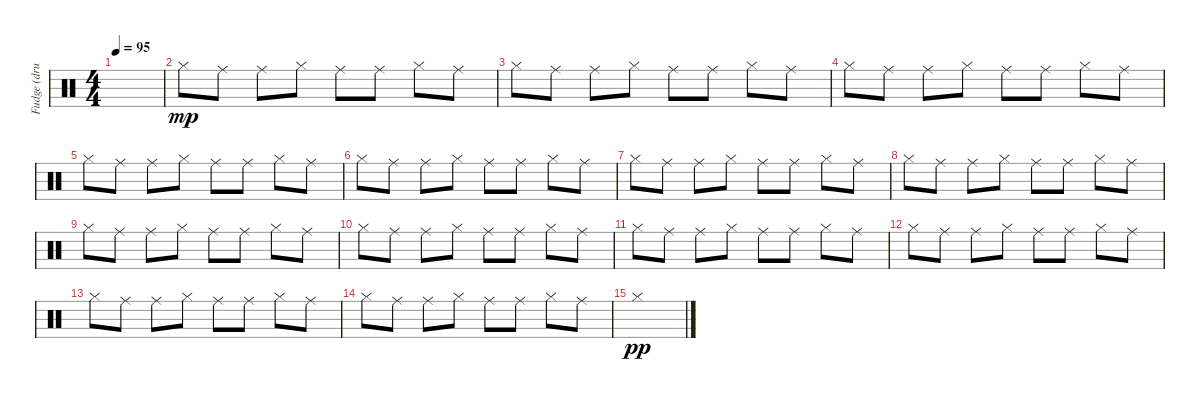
\track ("Fudge (drums)" "Fudge (dru") {instrument percussion}
\staff {score}
\articulation defaults
\ts (4 4)
\tempo 95
\clef neutral
\ks c
|
"Hi-Hat (closed)".8{dy mp volume 7} "Ride (middle)".8 "Ride (middle)".8 "Hi-Hat (closed)".8 "Ride (middle)".8 "Ride (middle)".8 "Hi-Hat (closed)".8 "Ride (middle)".8 |
"Hi-Hat (closed)".8 "Ride (middle)".8 "Ride (middle)".8 "Hi-Hat (closed)".8 "Ride (middle)".8 "Ride (middle)".8 "Hi-Hat (closed)".8 "Ride (middle)".8 |
"Hi-Hat (closed)".8 "Ride (middle)".8 "Ride (middle)".8 "Hi-Hat (closed)".8 "Ride (middle)".8 "Ride (middle)".8 "Hi-Hat (closed)".8 "Ride (middle)".8 |
"Hi-Hat (closed)".8 "Ride (middle)".8 "Ride (middle)".8 "Hi-Hat (closed)".8 "Ride (middle)".8 "Ride (middle)".8 "Hi-Hat (closed)".8 "Ride (middle)".8 |
"Hi-Hat (closed)".8 "Ride (middle)".8 "Ride (middle)".8 "Hi-Hat (closed)".8 "Ride (middle)".8 "Ride (middle)".8 "Hi-Hat (closed)".8 "Ride (middle)".8 |
"Hi-Hat (closed)".8 "Ride (middle)".8 "Ride (middle)".8 "Hi-Hat (closed)".8 "Ride (middle)".8 "Ride (middle)".8 "Hi-Hat (closed)".8 "Ride (middle)".8 |
"Hi-Hat (closed)".8 "Ride (middle)".8 "Ride (middle)".8 "Hi-Hat (closed)".8 "Ride (middle)".8 "Ride (middle)".8 "Hi-Hat (closed)".8 "Ride (middle)".8 |
"Hi-Hat (closed)".8 "Ride (middle)".8 "Ride (middle)".8 "Hi-Hat (closed)".8 "Ride (middle)".8 "Ride (middle)".8 "Hi-Hat (closed)".8 "Ride (middle)".8 |
"Hi-Hat (closed)".8 "Ride (middle)".8 "Ride (middle)".8 "Hi-Hat (closed)".8 "Ride (middle)".8 "Ride (middle)".8 "Hi-Hat (closed)".8 "Ride (middle)".8 |
"Hi-Hat (closed)".8 "Ride (middle)".8 "Ride (middle)".8 "Hi-Hat (closed)".8 "Ride (middle)".8 "Ride (middle)".8 "Hi-Hat (closed)".8 "Ride (middle)".8 |
"Hi-Hat (closed)".8 "Ride (middle)".8 "Ride (middle)".8 "Hi-Hat (closed)".8 "Ride (middle)".8 "Ride (middle)".8 "Hi-Hat (closed)".8 "Ride (middle)".8 |
"Hi-Hat (closed)".8 "Ride (middle)".8 "Ride (middle)".8 "Hi-Hat (closed)".8 "Ride (middle)".8 "Ride (middle)".8 "Hi-Hat (closed)".8 "Ride (middle)".8 |
"Hi-Hat (closed)".8 "Ride (middle)".8 "Ride (middle)".8 "Hi-Hat (closed)".8 "Ride (middle)".8 "Ride (middle)".8 "Hi-Hat (closed)".8 "Ride (middle)".8 |
"Hi-Hat (closed)".1{dy pp}
